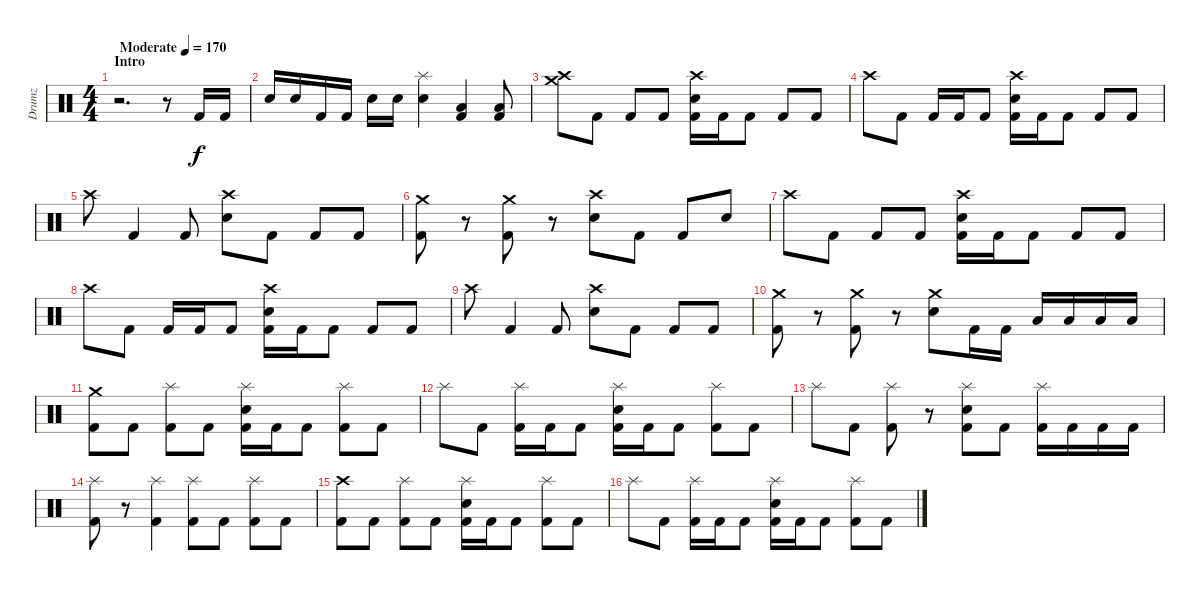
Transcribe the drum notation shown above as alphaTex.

\track ("Drumz" "Drumz") {instrument percussion}
\staff {score}
\articulation defaults
\ts (4 4)
\section ("" "Intro")
\tempo (170 "Moderate")
\clef neutral
\ks c
r.2{d dy f} r.8 "Kick (hit) 2".16 "Kick (hit) 2".16 |
"Electric Snare (hit)".16 "Electric Snare (hit)".16 "Kick (hit) 2".16 "Kick (hit) 2".16 "Electric Snare (hit)".16 "Electric Snare (hit)".16 ("Electric Snare (hit)" "Splash (hit)").4 ("Kick (hit) 2" "Low Floor Tom (hit)").4 ("Kick (hit) 2" "Low Floor Tom (hit)").8 |
("Crash high (hit)" "Crash medium (hit)").8 "Kick (hit) 2".8 "Kick (hit) 2".8 "Kick (hit) 2".8 ("Kick (hit) 2" "Crash high (hit)" "Electric Snare (hit)").16 "Kick (hit) 2".16 "Kick (hit) 2".8 "Kick (hit) 2".8 "Kick (hit) 2".8 |
"Crash high (hit)".8 "Kick (hit) 2".8 "Kick (hit) 2".16 "Kick (hit) 2".16 "Kick (hit) 2".8 ("Kick (hit) 2" "Crash high (hit)" "Electric Snare (hit)").16 "Kick (hit) 2".16 "Kick (hit) 2".8 "Kick (hit) 2".8 "Kick (hit) 2".8 |
"Crash high (hit)".8 "Kick (hit) 2".4 "Kick (hit) 2".8 ("Electric Snare (hit)" "Crash high (hit)").8 "Kick (hit) 2".8 "Kick (hit) 2".8 "Kick (hit) 2".8 |
("Crash medium (hit)" "Kick (hit) 2").8 r.8 ("Kick (hit) 2" "Crash medium (hit)").8 r.8 ("Crash high (hit)" "Electric Snare (hit)").8 "Kick (hit) 2".8 "Kick (hit) 2".8 "Electric Snare (hit)".8 |
"Crash high (hit)".8 "Kick (hit) 2".8 "Kick (hit) 2".8 "Kick (hit) 2".8 ("Kick (hit) 2" "Crash high (hit)" "Electric Snare (hit)").16 "Kick (hit) 2".16 "Kick (hit) 2".8 "Kick (hit) 2".8 "Kick (hit) 2".8 |
"Crash high (hit)".8 "Kick (hit) 2".8 "Kick (hit) 2".16 "Kick (hit) 2".16 "Kick (hit) 2".8 ("Kick (hit) 2" "Crash high (hit)" "Electric Snare (hit)").16 "Kick (hit) 2".16 "Kick (hit) 2".8 "Kick (hit) 2".8 "Kick (hit) 2".8 |
"Crash high (hit)".8 "Kick (hit) 2".4 "Kick (hit) 2".8 ("Electric Snare (hit)" "Crash high (hit)").8 "Kick (hit) 2".8 "Kick (hit) 2".8 "Kick (hit) 2".8 |
("Kick (hit) 2" "Crash medium (hit)").8 r.8 ("Crash medium (hit)" "Kick (hit) 2").8 r.8 ("Crash medium (hit)" "Electric Snare (hit)").8 "Kick (hit) 2".16 "Kick (hit) 2".16 "Low Tom (hit)".16 "Low Tom (hit)".16 "Low Floor Tom (hit)".16 "Low Floor Tom (hit)".16 |
("Kick (hit) 2" "Crash medium (hit)").8 "Kick (hit) 2".8 ("Kick (hit) 2" "Splash (hit)").8 "Kick (hit) 2".8 ("Kick (hit) 2" "Splash (hit)" "Electric Snare (hit)").16 "Kick (hit) 2".16 "Kick (hit) 2".8 ("Kick (hit) 2" "Splash (hit)").8 "Kick (hit) 2".8 |
"Splash (hit)".8 "Kick (hit) 2".8 ("Kick (hit) 2" "Splash (hit)").16 "Kick (hit) 2".16 "Kick (hit) 2".8 ("Kick (hit) 2" "Electric Snare (hit)" "Splash (hit)").16 "Kick (hit) 2".16 "Kick (hit) 2".8 ("Kick (hit) 2" "Splash (hit)").8 "Kick (hit) 2".8 |
"Splash (hit)".8 "Kick (hit) 2".8 ("Splash (hit)" "Kick (hit) 2").8 r.8 ("Electric Snare (hit)" "Splash (hit)" "Kick (hit) 2").8 "Kick (hit) 2".8 ("Kick (hit) 2" "Splash (hit)").16 "Kick (hit) 2".16 "Kick (hit) 2".16 "Kick (hit) 2".16 |
("Kick (hit) 2" "Splash (hit)").8 r.8 ("Splash (hit)" "Kick (hit) 2").4 ("Splash (hit)" "Kick (hit) 2").8 "Kick (hit) 2".8 ("Splash (hit)" "Kick (hit) 2").8 "Kick (hit) 2".8 |
("Kick (hit) 2" "Crash high (hit)").8 "Kick (hit) 2".8 ("Kick (hit) 2" "Splash (hit)").8 "Kick (hit) 2".8 ("Kick (hit) 2" "Splash (hit)" "Electric Snare (hit)").16 "Kick (hit) 2".16 "Kick (hit) 2".8 ("Kick (hit) 2" "Splash (hit)").8 "Kick (hit) 2".8 |
"Splash (hit)".8 "Kick (hit) 2".8 ("Kick (hit) 2" "Splash (hit)").16 "Kick (hit) 2".16 "Kick (hit) 2".8 ("Kick (hit) 2" "Electric Snare (hit)" "Splash (hit)").16 "Kick (hit) 2".16 "Kick (hit) 2".8 ("Kick (hit) 2" "Splash (hit)").8 "Kick (hit) 2".8
